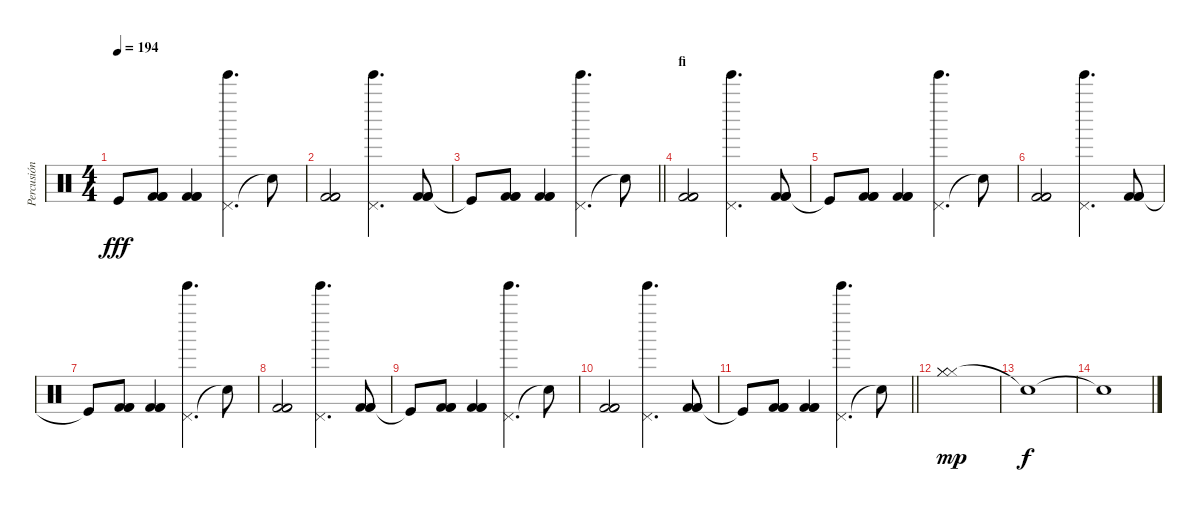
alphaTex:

\track ("Percusión" "Percusión") {instrument percussion}
\staff {score}
\articulation defaults
\ts (4 4)
\tempo 194
\clef neutral
\ks c "Kick (hit)"{t}.8{dy fff}
("Kick (hit) 2" "Kick (hit) 2" "Kick (hit) 2").8 ("Kick (hit) 2" "Kick (hit) 2" "Kick (hit) 2").4 ("Pedal Hi-Hat (hit)" "Tinkle Bell (hit)").4{d} "Snare (hit)"{t}.8 |
("Kick (hit) 2" "Kick (hit) 2" "Kick (hit) 2").2 ("Pedal Hi-Hat (hit)" "Tinkle Bell (hit)").4{d} ("Kick (hit) 2" "Kick (hit) 2" "Kick (hit) 2").8 |
\barLineRight lightlight "Kick (hit)"{t}.8
("Kick (hit) 2" "Kick (hit) 2" "Kick (hit) 2").8 ("Kick (hit) 2" "Kick (hit) 2" "Kick (hit) 2").4 ("Pedal Hi-Hat (hit)" "Tinkle Bell (hit)").4{d} "Snare (hit)"{t}.8 |
\section ("" "fi")
("Kick (hit) 2" "Kick (hit) 2" "Kick (hit) 2").2 ("Pedal Hi-Hat (hit)" "Tinkle Bell (hit)").4{d} ("Kick (hit) 2" "Kick (hit) 2" "Kick (hit) 2").8 |
"Kick (hit)"{t}.8 ("Kick (hit) 2" "Kick (hit) 2" "Kick (hit) 2").8 ("Kick (hit) 2" "Kick (hit) 2" "Kick (hit) 2").4 ("Pedal Hi-Hat (hit)" "Tinkle Bell (hit)").4{d} "Snare (hit)"{t}.8 |
("Kick (hit) 2" "Kick (hit) 2" "Kick (hit) 2").2 ("Pedal Hi-Hat (hit)" "Tinkle Bell (hit)").4{d} ("Kick (hit) 2" "Kick (hit) 2" "Kick (hit) 2").8 |
"Kick (hit)"{t}.8 ("Kick (hit) 2" "Kick (hit) 2" "Kick (hit) 2").8 ("Kick (hit) 2" "Kick (hit) 2" "Kick (hit) 2").4 ("Pedal Hi-Hat (hit)" "Tinkle Bell (hit)").4{d} "Snare (hit)"{t}.8 |
("Kick (hit) 2" "Kick (hit) 2" "Kick (hit) 2").2 ("Pedal Hi-Hat (hit)" "Tinkle Bell (hit)").4{d} ("Kick (hit) 2" "Kick (hit) 2" "Kick (hit) 2").8 |
"Kick (hit)"{t}.8 ("Kick (hit) 2" "Kick (hit) 2" "Kick (hit) 2").8 ("Kick (hit) 2" "Kick (hit) 2" "Kick (hit) 2").4 ("Pedal Hi-Hat (hit)" "Tinkle Bell (hit)").4{d} "Snare (hit)"{t}.8 |
("Kick (hit) 2" "Kick (hit) 2" "Kick (hit) 2").2 ("Pedal Hi-Hat (hit)" "Tinkle Bell (hit)").4{d} ("Kick (hit) 2" "Kick (hit) 2" "Kick (hit) 2").8 |
\barLineRight lightlight "Kick (hit)"{t}.8
("Kick (hit) 2" "Kick (hit) 2" "Kick (hit) 2").8 ("Kick (hit) 2" "Kick (hit) 2" "Kick (hit) 2").4 ("Pedal Hi-Hat (hit)" "Tinkle Bell (hit)").4{d} "Snare (hit)"{t}.8 |
("Hi-Hat (closed)" "Hi-Hat (closed)" "Hi-Hat (closed)").1{dy mp} |
"Snare (hit)"{t}.1{dy f} |
"Snare (hit)"{t}.1
